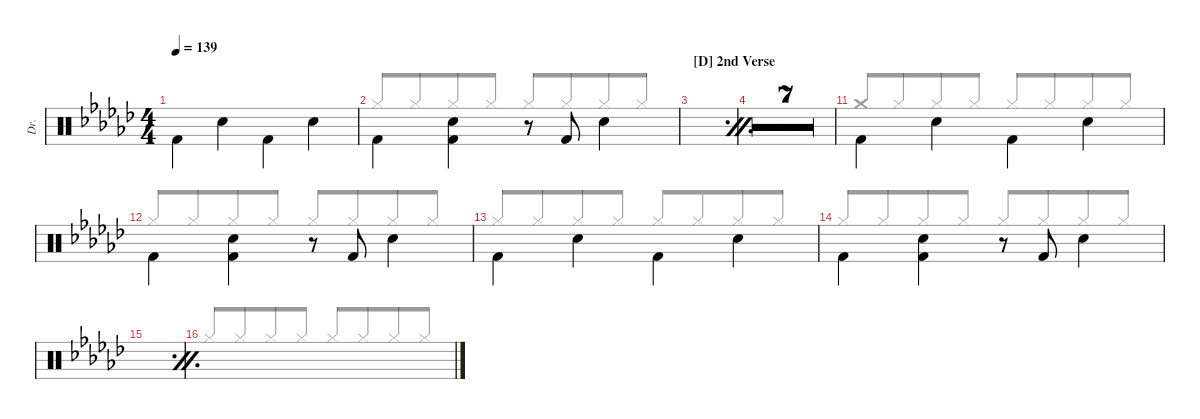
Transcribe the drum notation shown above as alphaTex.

\defaultSystemsLayout 4
\hideDynamics
\bracketExtendMode groupsimilarinstruments
\otherSystemsTrackNameOrientation horizontal
\track ("Drums" "Dr.") {multiBarRest instrument percussion}
\staff {score}
\articulation defaults
\voice
\ts (4 4)
\tempo 139
\clef neutral
\ks gb "Kick (hit) 2"{acc forcenatural}.4{dy f beam Down} "Snare (hit) 2"{acc forcenatural}.4{beam Down} "Kick (hit) 2"{acc forcenatural}.4{beam Down} "Snare (hit) 2"{acc forcenatural}.4{beam Down}
|
"Kick (hit) 2"{acc forcenatural}.4{beam Down} ("Snare (hit) 2"{acc forcenatural} "Kick (hit) 2"{acc forcenatural}).4{beam Down} r.8{beam Up} "Kick (hit) 2"{acc forcenatural}.8{beam Down} "Snare (hit) 2"{acc forcenatural}.4{beam Down} |
\section ("D" "2nd Verse")
\simile firstofdouble
|
\simile secondofdouble
|
\simile firstofdouble
|
\simile secondofdouble
|
\simile firstofdouble
|
\simile secondofdouble
|
\simile firstofdouble
|
\simile secondofdouble
|
\simile none "Kick (hit) 2"{acc forcenatural}.4{beam Down} "Snare (hit) 2"{acc forcenatural}.4{beam Down} "Kick (hit) 2"{acc forcenatural}.4{beam Down} "Snare (hit) 2"{acc forcenatural}.4{beam Down}
|
"Kick (hit) 2"{acc forcenatural}.4{beam Down} ("Snare (hit) 2"{acc forcenatural} "Kick (hit) 2"{acc forcenatural}).4{beam Down} r.8{beam Up} "Kick (hit) 2"{acc forcenatural}.8{beam Down} "Snare (hit) 2"{acc forcenatural}.4{beam Down} |
"Kick (hit) 2"{acc forcenatural}.4{beam Down} "Snare (hit) 2"{acc forcenatural}.4{beam Down} "Kick (hit) 2"{acc forcenatural}.4{beam Down} "Snare (hit) 2"{acc forcenatural}.4{beam Down} |
"Kick (hit) 2"{acc forcenatural}.4{beam Down} ("Snare (hit) 2"{acc forcenatural} "Kick (hit) 2"{acc forcenatural}).4{beam Down} r.8{beam Up} "Kick (hit) 2"{acc forcenatural}.8{beam Down} "Snare (hit) 2"{acc forcenatural}.4{beam Down} |
\simile firstofdouble
|
\simile secondofdouble
\voice
\clef neutral
\ottava regular
\simile none
\ks gb "Hi-Hat (closed)"{acc forcenatural}.8{dy f beam Up} "Hi-Hat (closed)"{acc forcenatural}.8{beam Up beam merge} "Hi-Hat (closed)"{acc forcenatural}.8{beam Up} "Hi-Hat (closed)"{acc forcenatural}.8{beam Up} "Hi-Hat (closed)"{acc forcenatural}.8{beam Up} "Hi-Hat (closed)"{acc forcenatural}.8{beam Up beam merge} "Hi-Hat (closed)"{acc forcenatural}.8{beam Up} "Hi-Hat (closed)"{acc forcenatural}.8{beam Up}
|
"Hi-Hat (closed)"{acc forcenatural}.8{beam Up beam merge} "Hi-Hat (closed)"{acc forcenatural}.8{beam Up beam merge} "Hi-Hat (closed)"{acc forcenatural}.8{beam Up} "Hi-Hat (closed)"{acc forcenatural}.8{beam Up} "Hi-Hat (closed)"{acc forcenatural}.8{beam Up} "Hi-Hat (closed)"{acc forcenatural}.8{beam Up beam merge} "Hi-Hat (closed)"{acc forcenatural}.8{beam Up beam merge} "Hi-Hat (closed)"{acc forcenatural}.8{beam Up} |
\simile firstofdouble
|
\simile secondofdouble
|
\simile firstofdouble
|
\simile secondofdouble
|
\simile firstofdouble
|
\simile secondofdouble
|
\simile firstofdouble
|
\simile secondofdouble
|
\simile none "Crash medium (hit)"{acc forcenatural}.8{beam Up} "Hi-Hat (closed)"{acc forcenatural}.8{beam Up beam merge} "Hi-Hat (closed)"{acc forcenatural}.8{beam Up} "Hi-Hat (closed)"{acc forcenatural}.8{beam Up} "Hi-Hat (closed)"{acc forcenatural}.8{beam Up} "Hi-Hat (closed)"{acc forcenatural}.8{beam Up beam merge} "Hi-Hat (closed)"{acc forcenatural}.8{beam Up} "Hi-Hat (closed)"{acc forcenatural}.8{beam Up}
|
"Hi-Hat (closed)"{acc forcenatural}.8{beam Up} "Hi-Hat (closed)"{acc forcenatural}.8{beam Up beam merge} "Hi-Hat (closed)"{acc forcenatural}.8{beam Up} "Hi-Hat (closed)"{acc forcenatural}.8{beam Up} "Hi-Hat (closed)"{acc forcenatural}.8{beam Up beam merge} "Hi-Hat (closed)"{acc forcenatural}.8{beam Up beam merge} "Hi-Hat (closed)"{acc forcenatural}.8{beam Up beam merge} "Hi-Hat (closed)"{acc forcenatural}.8{beam Up} |
"Hi-Hat (closed)"{acc forcenatural}.8{beam Up} "Hi-Hat (closed)"{acc forcenatural}.8{beam Up beam merge} "Hi-Hat (closed)"{acc forcenatural}.8{beam Up} "Hi-Hat (closed)"{acc forcenatural}.8{beam Up} "Hi-Hat (closed)"{acc forcenatural}.8{beam Up} "Hi-Hat (closed)"{acc forcenatural}.8{beam Up beam merge} "Hi-Hat (closed)"{acc forcenatural}.8{beam Up} "Hi-Hat (closed)"{acc forcenatural}.8{beam Up} |
"Hi-Hat (closed)"{acc forcenatural}.8{beam Up beam merge} "Hi-Hat (closed)"{acc forcenatural}.8{beam Up beam merge} "Hi-Hat (closed)"{acc forcenatural}.8{beam Up} "Hi-Hat (closed)"{acc forcenatural}.8{beam Up} "Hi-Hat (closed)"{acc forcenatural}.8{beam Up} "Hi-Hat (closed)"{acc forcenatural}.8{beam Up beam merge} "Hi-Hat (closed)"{acc forcenatural}.8{beam Up beam merge} "Hi-Hat (closed)"{acc forcenatural}.8{beam Up} |
\simile firstofdouble
|
\simile secondofdouble
